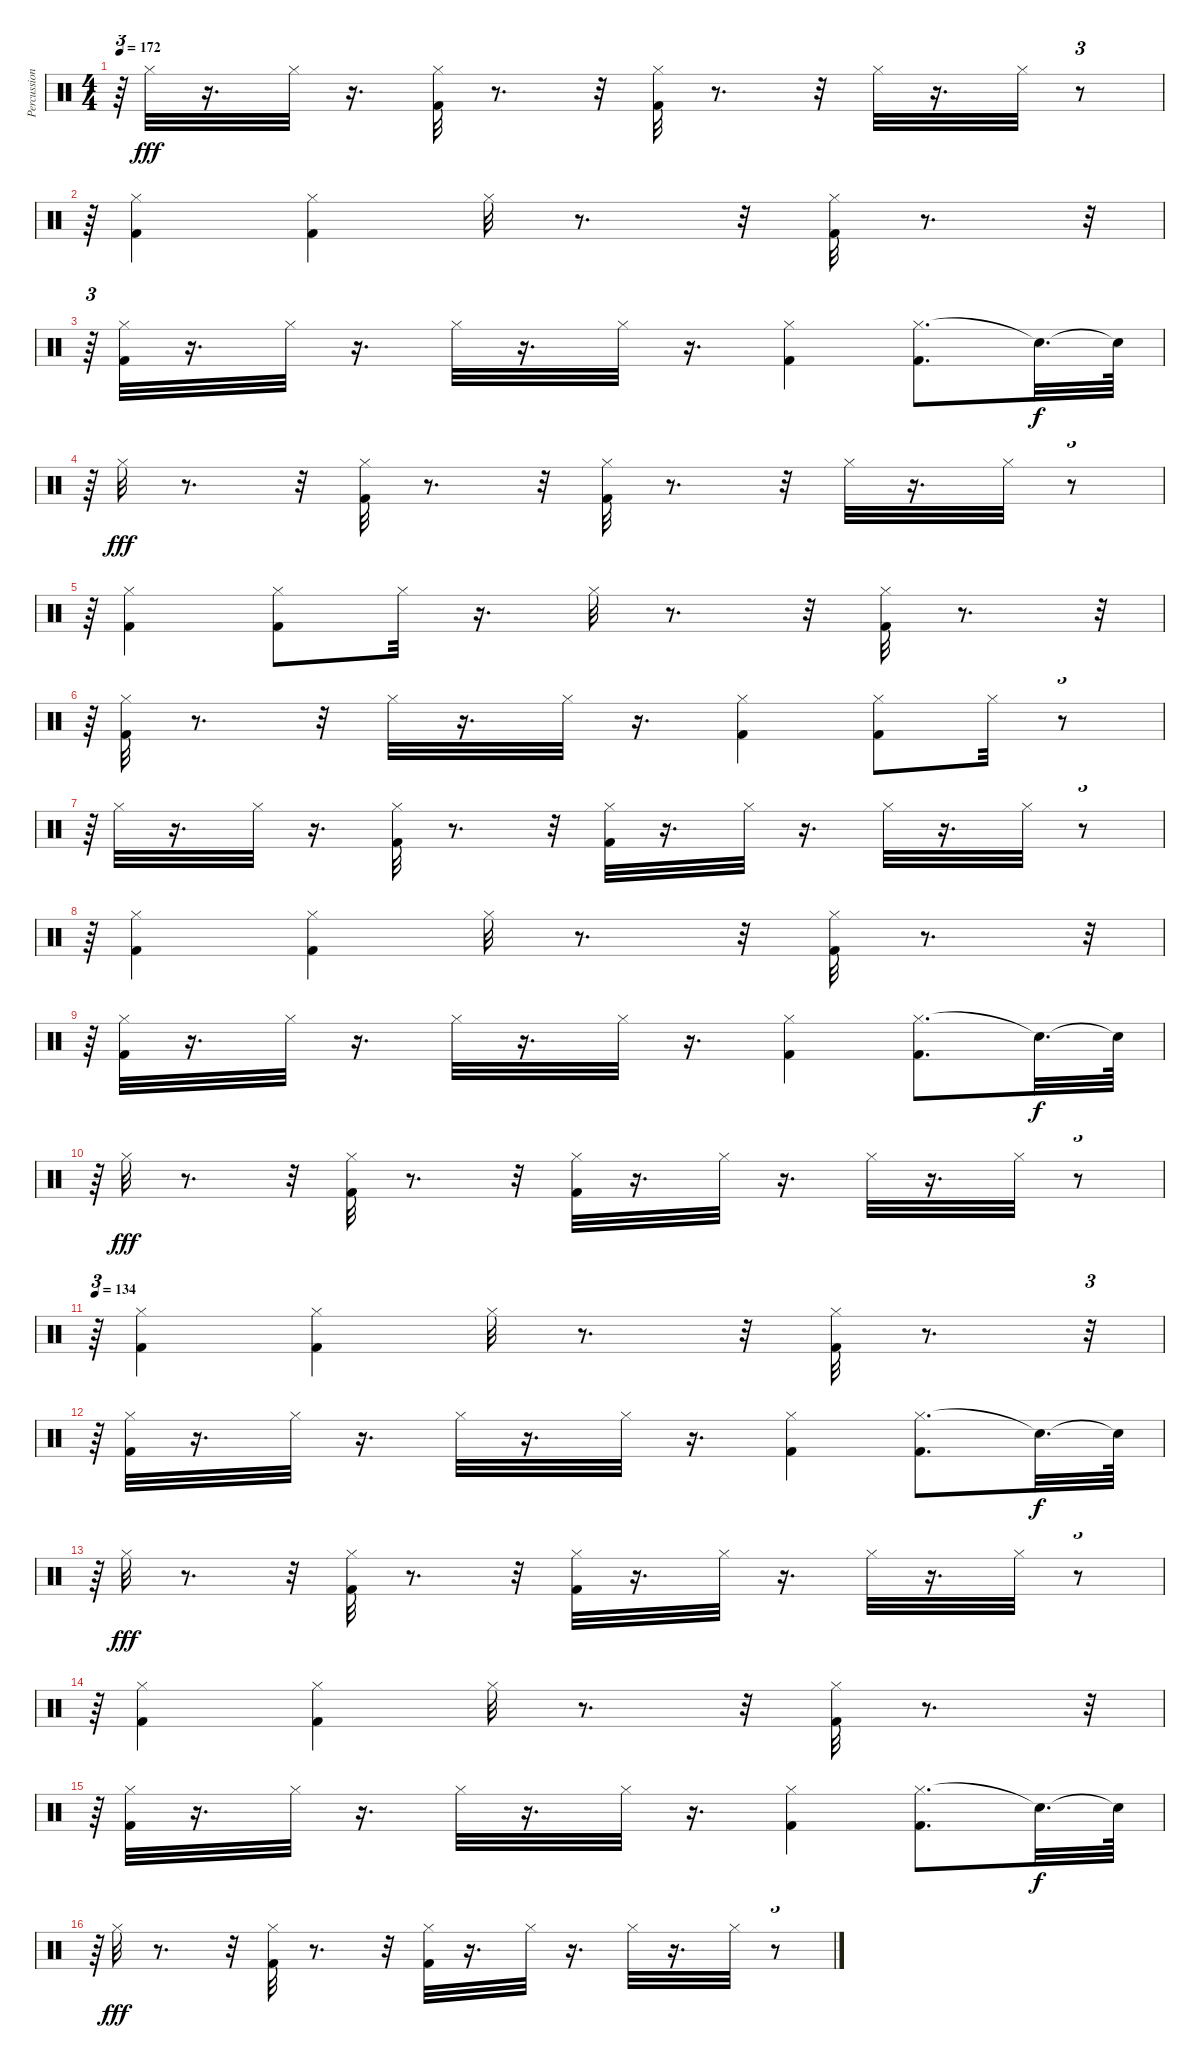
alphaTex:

\track ("Percussioni" "Percussion") {instrument percussion}
\staff {score}
\articulation defaults
\ts (4 4)
\tempo 172
\clef neutral
\ks c
r.64{tu (3 2) dy fff} "Hi-Hat (closed)".32 r.16{d} "Hi-Hat (closed)".32 r.16{d} ("Hi-Hat (closed)" "Kick (hit) 2").32 r.8{d} r.32 ("Hi-Hat (closed)" "Kick (hit) 2").32 r.8{d} r.32 "Hi-Hat (closed)".32 r.16{d} "Hi-Hat (closed)".32 r.8{tu (3 2)} |
r.64{tu (3 2)} ("Hi-Hat (closed)" "Kick (hit) 2").4 ("Hi-Hat (closed)" "Kick (hit) 2").4 "Hi-Hat (closed)".32 r.8{d} r.32 ("Hi-Hat (closed)" "Kick (hit) 2").32 r.8{d} r.32{tu (3 2)} |
\tempo (126 1.390625)
r.64{tu (3 2)} ("Hi-Hat (closed)" "Kick (hit) 2").32 r.16{d} "Hi-Hat (closed)".32 r.16{d} "Hi-Hat (closed)".32 r.16{d} "Hi-Hat (closed)".32 r.16{d} ("Hi-Hat (closed)" "Kick (hit) 2").4 ("Hi-Hat (closed)" "Kick (hit) 2").8{d} "Snare (hit)"{t}.32{d dy f} "Snare (hit)"{t}.64 |
r.64{tu (3 2)} "Hi-Hat (closed)".32{dy fff} r.8{d} r.32 ("Hi-Hat (closed)" "Kick (hit) 2").32 r.8{d} r.32 ("Hi-Hat (closed)" "Kick (hit) 2").32 r.8{d} r.32 "Hi-Hat (closed)".32 r.16{d} "Hi-Hat (closed)".32 r.8{tu (3 2)} |
r.64{tu (3 2)} ("Hi-Hat (closed)" "Kick (hit) 2").4 ("Hi-Hat (closed)" "Kick (hit) 2").8 "Hi-Hat (closed)".32 r.16{d} "Hi-Hat (closed)".32 r.8{d} r.32 ("Hi-Hat (closed)" "Kick (hit) 2").32 r.8{d} r.32{tu (3 2)} |
r.64{tu (3 2)} ("Hi-Hat (closed)" "Kick (hit) 2").32 r.8{d} r.32 "Hi-Hat (closed)".32 r.16{d} "Hi-Hat (closed)".32 r.16{d} ("Hi-Hat (closed)" "Kick (hit) 2").4 ("Hi-Hat (closed)" "Kick (hit) 2").8 "Hi-Hat (closed)".32 r.8{tu (3 2)} |
r.64{tu (3 2)} "Hi-Hat (closed)".32 r.16{d} "Hi-Hat (closed)".32 r.16{d} ("Hi-Hat (closed)" "Kick (hit) 2").32 r.8{d} r.32 ("Hi-Hat (closed)" "Kick (hit) 2").32 r.16{d} "Hi-Hat (closed)".32 r.16{d} "Hi-Hat (closed)".32 r.16{d} "Hi-Hat (closed)".32 r.8{tu (3 2)} |
r.64{tu (3 2)} ("Hi-Hat (closed)" "Kick (hit) 2").4 ("Hi-Hat (closed)" "Kick (hit) 2").4 "Hi-Hat (closed)".32 r.8{d} r.32 ("Hi-Hat (closed)" "Kick (hit) 2").32 r.8{d} r.32{tu (3 2)} |
r.64{tu (3 2)} ("Hi-Hat (closed)" "Kick (hit) 2").32 r.16{d} "Hi-Hat (closed)".32 r.16{d} "Hi-Hat (closed)".32 r.16{d} "Hi-Hat (closed)".32 r.16{d} ("Hi-Hat (closed)" "Kick (hit) 2").4 ("Hi-Hat (closed)" "Kick (hit) 2").8{d} "Snare (hit)"{t}.32{d dy f} "Snare (hit)"{t}.64 |
r.64{tu (3 2)} "Hi-Hat (closed)".32{dy fff} r.8{d} r.32 ("Hi-Hat (closed)" "Kick (hit) 2").32 r.8{d} r.32 ("Hi-Hat (closed)" "Kick (hit) 2").32 r.16{d} "Hi-Hat (closed)".32 r.16{d} "Hi-Hat (closed)".32 r.16{d} "Hi-Hat (closed)".32 r.8{tu (3 2)} |
\tempo 134
r.64{tu (3 2)} ("Hi-Hat (closed)" "Kick (hit) 2").4 ("Hi-Hat (closed)" "Kick (hit) 2").4 "Hi-Hat (closed)".32 r.8{d} r.32 ("Hi-Hat (closed)" "Kick (hit) 2").32 r.8{d} r.32{tu (3 2)} |
r.64{tu (3 2)} ("Hi-Hat (closed)" "Kick (hit) 2").32 r.16{d} "Hi-Hat (closed)".32 r.16{d} "Hi-Hat (closed)".32 r.16{d} "Hi-Hat (closed)".32 r.16{d} ("Hi-Hat (closed)" "Kick (hit) 2").4 ("Hi-Hat (closed)" "Kick (hit) 2").8{d} "Snare (hit)"{t}.32{d dy f} "Snare (hit)"{t}.64 |
r.64{tu (3 2)} "Hi-Hat (closed)".32{dy fff} r.8{d} r.32 ("Hi-Hat (closed)" "Kick (hit) 2").32 r.8{d} r.32 ("Hi-Hat (closed)" "Kick (hit) 2").32 r.16{d} "Hi-Hat (closed)".32 r.16{d} "Hi-Hat (closed)".32 r.16{d} "Hi-Hat (closed)".32 r.8{tu (3 2)} |
r.64{tu (3 2)} ("Hi-Hat (closed)" "Kick (hit) 2").4 ("Hi-Hat (closed)" "Kick (hit) 2").4 "Hi-Hat (closed)".32 r.8{d} r.32 ("Hi-Hat (closed)" "Kick (hit) 2").32 r.8{d} r.32{tu (3 2)} |
r.64{tu (3 2)} ("Hi-Hat (closed)" "Kick (hit) 2").32 r.16{d} "Hi-Hat (closed)".32 r.16{d} "Hi-Hat (closed)".32 r.16{d} "Hi-Hat (closed)".32 r.16{d} ("Hi-Hat (closed)" "Kick (hit) 2").4 ("Hi-Hat (closed)" "Kick (hit) 2").8{d} "Snare (hit)"{t}.32{d dy f} "Snare (hit)"{t}.64 |
r.64{tu (3 2)} "Hi-Hat (closed)".32{dy fff} r.8{d} r.32 ("Hi-Hat (closed)" "Kick (hit) 2").32 r.8{d} r.32 ("Hi-Hat (closed)" "Kick (hit) 2").32 r.16{d} "Hi-Hat (closed)".32 r.16{d} "Hi-Hat (closed)".32 r.16{d} "Hi-Hat (closed)".32 r.8{tu (3 2)}
